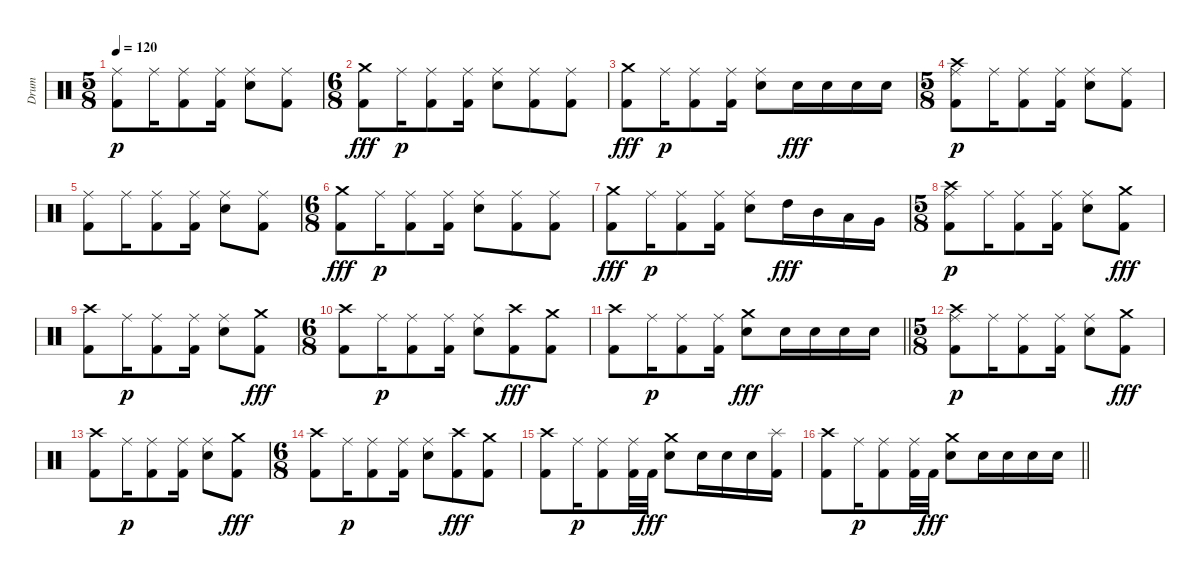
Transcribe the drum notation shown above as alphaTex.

\track ("Drum" "Drum") {instrument percussion}
\staff {score}
\articulation defaults
\ts (5 8)
\tempo 120
\clef neutral
\ks c
("Kick (hit) 2" "Ride (middle)").8{dy p} "Ride (middle)".16 ("Kick (hit) 2" "Ride (middle)").8 ("Kick (hit) 2" "Ride (middle)").16 ("Electric Snare (hit)" "Ride (middle)").8 ("Kick (hit) 2" "Ride (middle)").8 |
\ts (6 8)
("Kick (hit) 2" "Crash medium (hit)").8{dy fff} "Ride (middle)".16{dy p} ("Kick (hit) 2" "Ride (middle)").8 ("Kick (hit) 2" "Ride (middle)").16 ("Electric Snare (hit)" "Ride (middle)").8 ("Kick (hit) 2" "Ride (middle)").8 ("Kick (hit) 2" "Ride (middle)").8 |
("Kick (hit) 2" "Crash medium (hit)").8{dy fff} "Ride (middle)".16{dy p} ("Kick (hit) 2" "Ride (middle)").8 ("Kick (hit) 2" "Ride (middle)").16 ("Electric Snare (hit)" "Ride (middle)").8 "Electric Snare (hit)".16{dy fff} "Electric Snare (hit)".16 "Electric Snare (hit)".16 "Electric Snare (hit)".16 |
\ts (5 8)
("Kick (hit) 2" "Ride (middle)" "Crash high (hit)").8{dy p} "Ride (middle)".16 ("Kick (hit) 2" "Ride (middle)").8 ("Kick (hit) 2" "Ride (middle)").16 ("Electric Snare (hit)" "Ride (middle)").8 ("Kick (hit) 2" "Ride (middle)").8 |
("Kick (hit) 2" "Ride (middle)").8 "Ride (middle)".16 ("Kick (hit) 2" "Ride (middle)").8 ("Kick (hit) 2" "Ride (middle)").16 ("Electric Snare (hit)" "Ride (middle)").8 ("Kick (hit) 2" "Ride (middle)").8 |
\ts (6 8)
("Kick (hit) 2" "Crash medium (hit)").8{dy fff} "Ride (middle)".16{dy p} ("Kick (hit) 2" "Ride (middle)").8 ("Kick (hit) 2" "Ride (middle)").16 ("Electric Snare (hit)" "Ride (middle)").8 ("Kick (hit) 2" "Ride (middle)").8 ("Kick (hit) 2" "Ride (middle)").8 |
("Kick (hit) 2" "Crash medium (hit)").8{dy fff} "Ride (middle)".16{dy p} ("Kick (hit) 2" "Ride (middle)").8 ("Kick (hit) 2" "Ride (middle)").16 ("Electric Snare (hit)" "Ride (middle)").8 "High Tom (hit)".16{dy fff} "Mid Tom (hit)".16 "Low Tom (hit)".16 "Very Low Tom (hit)".16 |
\ts (5 8)
("Kick (hit) 2" "Ride (middle)" "Crash high (hit)").8{dy p} "Ride (middle)".16 ("Kick (hit) 2" "Ride (middle)").8 ("Kick (hit) 2" "Ride (middle)").16 ("Electric Snare (hit)" "Ride (middle)").8 ("Kick (hit) 2" "Crash medium (hit)").8{dy fff} |
("Kick (hit) 2" "Crash high (hit)").8 "Ride (middle)".16{dy p} ("Kick (hit) 2" "Ride (middle)").8 ("Kick (hit) 2" "Ride (middle)").16 ("Electric Snare (hit)" "Ride (middle)").8 ("Kick (hit) 2" "Crash medium (hit)").8{dy fff} |
\ts (6 8)
("Kick (hit) 2" "Crash high (hit)").8 "Ride (middle)".16{dy p} ("Kick (hit) 2" "Ride (middle)").8 ("Kick (hit) 2" "Ride (middle)").16 ("Electric Snare (hit)" "Ride (middle)").8 ("Kick (hit) 2" "Crash high (hit)").8{dy fff} ("Kick (hit) 2" "Crash medium (hit)").8 |
\barLineRight lightlight
("Kick (hit) 2" "Crash high (hit)").8 "Ride (middle)".16{dy p} ("Kick (hit) 2" "Ride (middle)").8 ("Kick (hit) 2" "Ride (middle)").16 ("Electric Snare (hit)" "Crash medium (hit)").8{dy fff} "Electric Snare (hit)".16 "Electric Snare (hit)".16 "Electric Snare (hit)".16 "Electric Snare (hit)".16 |
\ts (5 8)
("Kick (hit) 2" "Ride (middle)" "Crash high (hit)").8{dy p} "Ride (middle)".16 ("Kick (hit) 2" "Ride (middle)").8 ("Kick (hit) 2" "Ride (middle)").16 ("Electric Snare (hit)" "Ride (middle)").8 ("Kick (hit) 2" "Crash medium (hit)").8{dy fff} |
("Kick (hit) 2" "Crash high (hit)").8 "Ride (middle)".16{dy p} ("Kick (hit) 2" "Ride (middle)").8 ("Kick (hit) 2" "Ride (middle)").16 ("Electric Snare (hit)" "Ride (middle)").8 ("Kick (hit) 2" "Crash medium (hit)").8{dy fff} |
\ts (6 8)
("Kick (hit) 2" "Crash high (hit)").8 "Ride (middle)".16{dy p} ("Kick (hit) 2" "Ride (middle)").8 ("Kick (hit) 2" "Ride (middle)").16 ("Electric Snare (hit)" "Ride (middle)").8 ("Kick (hit) 2" "Crash high (hit)").8{dy fff} ("Kick (hit) 2" "Crash medium (hit)").8 |
("Kick (hit) 2" "Crash high (hit)").8 "Ride (middle)".16{dy p} ("Kick (hit) 2" "Ride (middle)").8 ("Kick (hit) 2" "Ride (middle)").32 "Kick (hit) 2".32{dy fff} ("Electric Snare (hit)" "Crash medium (hit)").8 "Electric Snare (hit)".16 "Electric Snare (hit)".16 "Electric Snare (hit)".16 ("Kick (hit) 2" "Splash (hit)").16 |
\barLineRight lightlight
("Kick (hit) 2" "Crash high (hit)").8 "Ride (middle)".16{dy p} ("Kick (hit) 2" "Ride (middle)").8 ("Kick (hit) 2" "Ride (middle)").32 "Kick (hit) 2".32{dy fff} ("Electric Snare (hit)" "Crash medium (hit)").8 "Electric Snare (hit)".16 "Electric Snare (hit)".16 "Electric Snare (hit)".16 "Electric Snare (hit)".16
